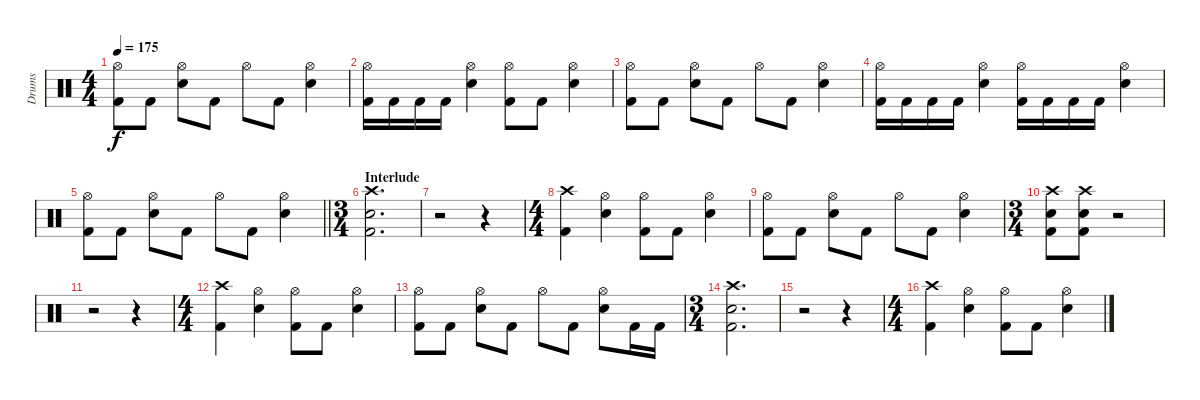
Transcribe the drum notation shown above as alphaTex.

\track ("Drums" "Drums") {instrument percussion}
\staff {score}
\articulation defaults
\ts (4 4)
\tempo 175
\clef neutral
\ks c
("Hi-Hat (open)" "Kick (hit) 2").8{dy f} "Kick (hit) 2".8 ("Hi-Hat (open)" "Electric Snare (hit)").8 "Kick (hit) 2".8 "Hi-Hat (open)".8 "Kick (hit) 2".8 ("Hi-Hat (open)" "Electric Snare (hit)").4 |
("Hi-Hat (open)" "Kick (hit) 2").16 "Kick (hit) 2".16 "Kick (hit) 2".16 "Kick (hit) 2".16 ("Hi-Hat (open)" "Electric Snare (hit)").4 ("Hi-Hat (open)" "Kick (hit) 2").8 "Kick (hit) 2".8 ("Hi-Hat (open)" "Electric Snare (hit)").4 |
("Hi-Hat (open)" "Kick (hit) 2").8 "Kick (hit) 2".8 ("Hi-Hat (open)" "Electric Snare (hit)").8 "Kick (hit) 2".8 "Hi-Hat (open)".8 "Kick (hit) 2".8 ("Hi-Hat (open)" "Electric Snare (hit)").4 |
("Hi-Hat (open)" "Kick (hit) 2").16 "Kick (hit) 2".16 "Kick (hit) 2".16 "Kick (hit) 2".16 ("Hi-Hat (open)" "Electric Snare (hit)").4 ("Hi-Hat (open)" "Kick (hit) 2").16 "Kick (hit) 2".16 "Kick (hit) 2".16 "Kick (hit) 2".16 ("Hi-Hat (open)" "Electric Snare (hit)").4 |
\barLineRight lightlight
("Hi-Hat (open)" "Kick (hit) 2").8 "Kick (hit) 2".8 ("Hi-Hat (open)" "Electric Snare (hit)").8 "Kick (hit) 2".8 "Hi-Hat (open)".8 "Kick (hit) 2".8 ("Hi-Hat (open)" "Electric Snare (hit)").4 |
\ts (3 4)
\section ("" "Interlude")
("Crash high (hit)" "Electric Snare (hit)" "Kick (hit) 2").2{d} |
r.2 r.4 |
\ts (4 4)
("Crash high (hit)" "Kick (hit) 2").4 ("Hi-Hat (open)" "Electric Snare (hit)").4 ("Hi-Hat (open)" "Kick (hit) 2").8 "Kick (hit) 2".8 ("Hi-Hat (open)" "Electric Snare (hit)").4 |
("Hi-Hat (open)" "Kick (hit) 2").8 "Kick (hit) 2".8 ("Hi-Hat (open)" "Electric Snare (hit)").8 "Kick (hit) 2".8 "Hi-Hat (open)".8 "Kick (hit) 2".8 ("Hi-Hat (open)" "Electric Snare (hit)").4 |
\ts (3 4)
("Crash high (hit)" "Electric Snare (hit)" "Kick (hit) 2").8 ("Crash high (hit)" "Electric Snare (hit)" "Kick (hit) 2").8 r.2 |
r.2 r.4 |
\ts (4 4)
("Crash high (hit)" "Kick (hit) 2").4 ("Hi-Hat (open)" "Electric Snare (hit)").4 ("Hi-Hat (open)" "Kick (hit) 2").8 "Kick (hit) 2".8 ("Hi-Hat (open)" "Electric Snare (hit)").4 |
("Hi-Hat (open)" "Kick (hit) 2").8 "Kick (hit) 2".8 ("Hi-Hat (open)" "Electric Snare (hit)").8 "Kick (hit) 2".8 "Hi-Hat (open)".8 "Kick (hit) 2".8 ("Hi-Hat (open)" "Electric Snare (hit)").8 "Kick (hit) 2".16 "Kick (hit) 2".16 |
\ts (3 4)
("Crash high (hit)" "Electric Snare (hit)" "Kick (hit) 2").2{d} |
r.2 r.4 |
\ts (4 4)
("Crash high (hit)" "Kick (hit) 2").4 ("Hi-Hat (open)" "Electric Snare (hit)").4 ("Hi-Hat (open)" "Kick (hit) 2").8 "Kick (hit) 2".8 ("Hi-Hat (open)" "Electric Snare (hit)").4
